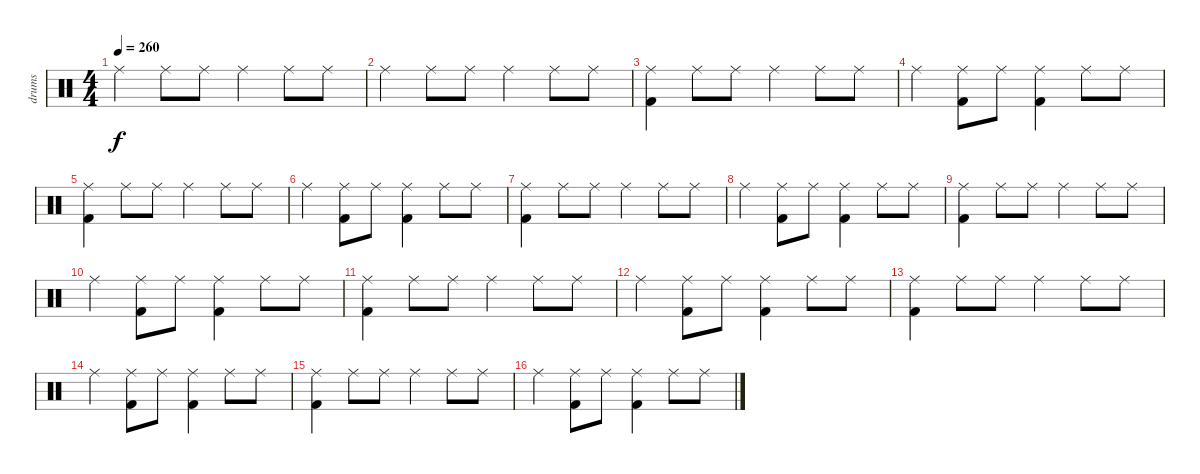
\track ("drums" "drums") {instrument percussion}
\staff {score}
\articulation defaults
\ts (4 4)
\tempo 260
\clef neutral
\ks c "Ride (middle)".4{dy f} "Ride (middle)".8 "Ride (middle)".8 "Ride (middle)".4 "Ride (middle)".8 "Ride (middle)".8
|
"Ride (middle)".4 "Ride (middle)".8 "Ride (middle)".8 "Ride (middle)".4 "Ride (middle)".8 "Ride (middle)".8 |
("Ride (middle)" "Kick (hit) 2").4 "Ride (middle)".8 "Ride (middle)".8 "Ride (middle)".4 "Ride (middle)".8 "Ride (middle)".8 |
"Ride (middle)".4 ("Ride (middle)" "Kick (hit) 2").8 "Ride (middle)".8 ("Ride (middle)" "Kick (hit) 2").4 "Ride (middle)".8 "Ride (middle)".8 |
("Ride (middle)" "Kick (hit) 2").4 "Ride (middle)".8 "Ride (middle)".8 "Ride (middle)".4 "Ride (middle)".8 "Ride (middle)".8 |
"Ride (middle)".4 ("Ride (middle)" "Kick (hit) 2").8 "Ride (middle)".8 ("Ride (middle)" "Kick (hit) 2").4 "Ride (middle)".8 "Ride (middle)".8 |
("Ride (middle)" "Kick (hit) 2").4 "Ride (middle)".8 "Ride (middle)".8 "Ride (middle)".4 "Ride (middle)".8 "Ride (middle)".8 |
"Ride (middle)".4 ("Ride (middle)" "Kick (hit) 2").8 "Ride (middle)".8 ("Ride (middle)" "Kick (hit) 2").4 "Ride (middle)".8 "Ride (middle)".8 |
("Ride (middle)" "Kick (hit) 2").4 "Ride (middle)".8 "Ride (middle)".8 "Ride (middle)".4 "Ride (middle)".8 "Ride (middle)".8 |
"Ride (middle)".4 ("Ride (middle)" "Kick (hit) 2").8 "Ride (middle)".8 ("Ride (middle)" "Kick (hit) 2").4 "Ride (middle)".8 "Ride (middle)".8 |
("Ride (middle)" "Kick (hit) 2").4 "Ride (middle)".8 "Ride (middle)".8 "Ride (middle)".4 "Ride (middle)".8 "Ride (middle)".8 |
"Ride (middle)".4 ("Ride (middle)" "Kick (hit) 2").8 "Ride (middle)".8 ("Ride (middle)" "Kick (hit) 2").4 "Ride (middle)".8 "Ride (middle)".8 |
("Ride (middle)" "Kick (hit) 2").4 "Ride (middle)".8 "Ride (middle)".8 "Ride (middle)".4 "Ride (middle)".8 "Ride (middle)".8 |
"Ride (middle)".4 ("Ride (middle)" "Kick (hit) 2").8 "Ride (middle)".8 ("Ride (middle)" "Kick (hit) 2").4 "Ride (middle)".8 "Ride (middle)".8 |
("Ride (middle)" "Kick (hit) 2").4 "Ride (middle)".8 "Ride (middle)".8 "Ride (middle)".4 "Ride (middle)".8 "Ride (middle)".8 |
"Ride (middle)".4 ("Ride (middle)" "Kick (hit) 2").8 "Ride (middle)".8 ("Ride (middle)" "Kick (hit) 2").4 "Ride (middle)".8 "Ride (middle)".8
